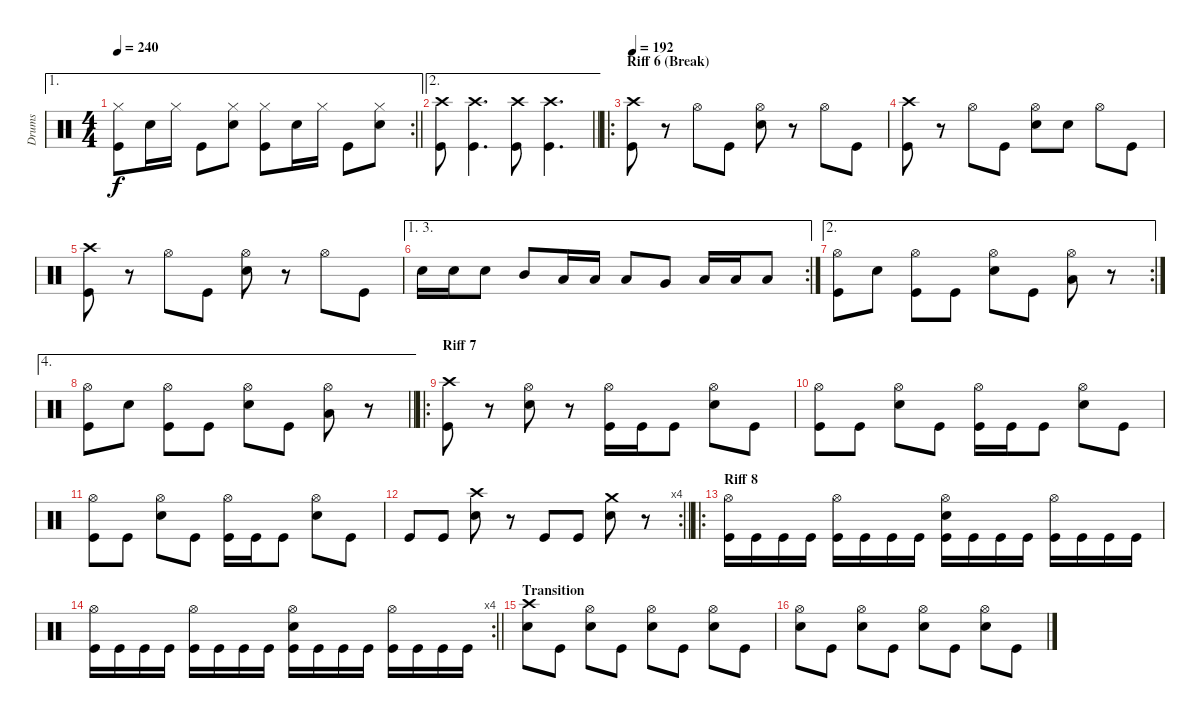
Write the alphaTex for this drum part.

\track ("Drums" "Drums") {instrument percussion}
\staff {score}
\articulation defaults
\ae 1
\rc 2
\ts (4 4)
\tempo 240
\clef neutral
\barLineRight lightlight
\ks c
("Hi-Hat (closed)" "Kick (hit)").8{dy f} "Snare (hit) 2".16 "Hi-Hat (closed)".16 "Kick (hit)".8 ("Hi-Hat (closed)" "Snare (hit) 2").8 ("Hi-Hat (closed)" "Kick (hit)").8 "Snare (hit) 2".16 "Hi-Hat (closed)".16 "Kick (hit)".8 ("Hi-Hat (closed)" "Snare (hit) 2").8 |
\ae 2
\barLineRight lightlight
("Crash high (hit)" "Kick (hit)").8 ("Crash high (hit)" "Kick (hit)").4{d} ("Crash high (hit)" "Kick (hit)").8 ("Crash high (hit)" "Kick (hit)").4{d} |
\ro
\section ("" "Riff 6 (Break)")
\tempo 192
("Crash high (hit)" "Kick (hit)").8 r.8 "Hi-Hat (open)".8 "Kick (hit)".8 ("Hi-Hat (open)" "Snare (hit) 2").8 r.8 "Hi-Hat (open)".8 "Kick (hit)".8 |
("Crash high (hit)" "Kick (hit)").8 r.8 "Hi-Hat (open)".8 "Kick (hit)".8 ("Hi-Hat (open)" "Snare (hit) 2").8 "Snare (hit) 2".8 "Hi-Hat (open)".8 "Kick (hit)".8 |
("Crash high (hit)" "Kick (hit)").8 r.8 "Hi-Hat (open)".8 "Kick (hit)".8 ("Hi-Hat (open)" "Snare (hit) 2").8 r.8 "Hi-Hat (open)".8 "Kick (hit)".8 |
\ae (1 3)
\rc 2 "Snare (hit) 2".16 "Snare (hit) 2".16 "Snare (hit) 2".8 "Mid Tom (hit)".8 "Low Tom (hit)".16 "Low Tom (hit)".16 "Low Tom (hit)".8 "Very Low Tom (hit)".8 "Low Floor Tom (hit)".16 "Low Floor Tom (hit)".16 "Low Floor Tom (hit)".8
|
\ae 2
\rc 2
("Hi-Hat (open)" "Kick (hit)").8 "Snare (hit) 2".8 ("Hi-Hat (open)" "Kick (hit)").8 "Kick (hit)".8 ("Hi-Hat (open)" "Snare (hit) 2").8 "Kick (hit)".8 ("Hi-Hat (open)" "Low Floor Tom (hit)").8 r.8 |
\ae 4
\barLineRight lightlight
("Hi-Hat (open)" "Kick (hit)").8 "Snare (hit) 2".8 ("Hi-Hat (open)" "Kick (hit)").8 "Kick (hit)".8 ("Hi-Hat (open)" "Snare (hit) 2").8 "Kick (hit)".8 ("Hi-Hat (open)" "Low Floor Tom (hit)").8 r.8 |
\ro
\section ("" "Riff 7")
("Crash high (hit)" "Kick (hit)").8 r.8 ("Hi-Hat (open)" "Snare (hit) 2").8 r.8 ("Hi-Hat (open)" "Kick (hit)").16 "Kick (hit)".16 "Kick (hit)".8 ("Hi-Hat (open)" "Snare (hit) 2").8 "Kick (hit)".8 |
("Hi-Hat (open)" "Kick (hit)").8 "Kick (hit)".8 ("Hi-Hat (open)" "Snare (hit) 2").8 "Kick (hit)".8 ("Hi-Hat (open)" "Kick (hit)").16 "Kick (hit)".16 "Kick (hit)".8 ("Hi-Hat (open)" "Snare (hit) 2").8 "Kick (hit)".8 |
("Hi-Hat (open)" "Kick (hit)").8 "Kick (hit)".8 ("Hi-Hat (open)" "Snare (hit) 2").8 "Kick (hit)".8 ("Hi-Hat (open)" "Kick (hit)").16 "Kick (hit)".16 "Kick (hit)".8 ("Hi-Hat (open)" "Snare (hit) 2").8 "Kick (hit)".8 |
\rc 4
\barLineRight lightlight "Kick (hit)".8 "Kick (hit)".8
("Crash high (hit)" "Snare (hit) 2").8 r.8 "Kick (hit)".8 "Kick (hit)".8 ("Crash medium (hit)" "Snare (hit) 2").8 r.8 |
\ro
\section ("" "Riff 8")
("Hi-Hat (open)" "Kick (hit)").16 "Kick (hit)".16 "Kick (hit)".16 "Kick (hit)".16 ("Hi-Hat (open)" "Kick (hit)").16 "Kick (hit)".16 "Kick (hit)".16 "Kick (hit)".16 ("Hi-Hat (open)" "Snare (hit) 2" "Kick (hit)").16 "Kick (hit)".16 "Kick (hit)".16 "Kick (hit)".16 ("Hi-Hat (open)" "Kick (hit)").16 "Kick (hit)".16 "Kick (hit)".16 "Kick (hit)".16 |
\rc 4
\barLineRight lightlight
("Hi-Hat (open)" "Kick (hit)").16 "Kick (hit)".16 "Kick (hit)".16 "Kick (hit)".16 ("Hi-Hat (open)" "Kick (hit)").16 "Kick (hit)".16 "Kick (hit)".16 "Kick (hit)".16 ("Hi-Hat (open)" "Snare (hit) 2" "Kick (hit)").16 "Kick (hit)".16 "Kick (hit)".16 "Kick (hit)".16 ("Hi-Hat (open)" "Kick (hit)").16 "Kick (hit)".16 "Kick (hit)".16 "Kick (hit)".16 |
\section ("" "Transition")
("Crash high (hit)" "Snare (hit) 2").8 "Kick (hit)".8 ("Hi-Hat (open)" "Snare (hit) 2").8 "Kick (hit)".8 ("Hi-Hat (open)" "Snare (hit) 2").8 "Kick (hit)".8 ("Hi-Hat (open)" "Snare (hit) 2").8 "Kick (hit)".8 |
("Hi-Hat (open)" "Snare (hit) 2").8 "Kick (hit)".8 ("Hi-Hat (open)" "Snare (hit) 2").8 "Kick (hit)".8 ("Hi-Hat (open)" "Snare (hit) 2").8 "Kick (hit)".8 ("Hi-Hat (open)" "Snare (hit) 2").8 "Kick (hit)".8
